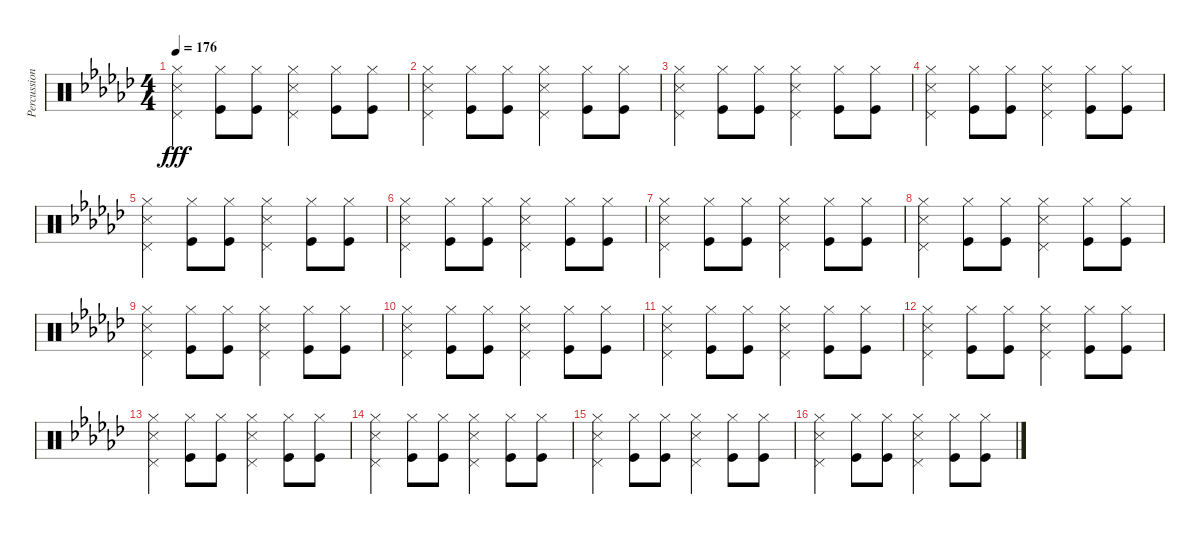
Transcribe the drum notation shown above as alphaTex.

\track ("Percussions" "Percussion") {instrument percussion}
\staff {score}
\articulation defaults
\ts (4 4)
\tempo 176
\clef neutral
\ks gb
("Snare (side stick) 3" "Pedal Hi-Hat (hit)" "Hi-Hat (closed)").4{dy fff} ("Kick (hit)" "Hi-Hat (closed)").8 ("Kick (hit)" "Hi-Hat (closed)").8 ("Snare (side stick) 3" "Pedal Hi-Hat (hit)" "Hi-Hat (closed)").4 ("Kick (hit)" "Hi-Hat (closed)").8 ("Kick (hit)" "Hi-Hat (closed)").8 |
("Snare (side stick) 3" "Pedal Hi-Hat (hit)" "Hi-Hat (closed)").4 ("Kick (hit)" "Hi-Hat (closed)").8 ("Kick (hit)" "Hi-Hat (closed)").8 ("Snare (side stick) 3" "Pedal Hi-Hat (hit)" "Hi-Hat (closed)").4 ("Kick (hit)" "Hi-Hat (closed)").8 ("Kick (hit)" "Hi-Hat (closed)").8 |
("Snare (side stick) 3" "Pedal Hi-Hat (hit)" "Hi-Hat (closed)").4 ("Kick (hit)" "Hi-Hat (closed)").8 ("Kick (hit)" "Hi-Hat (closed)").8 ("Snare (side stick) 3" "Pedal Hi-Hat (hit)" "Hi-Hat (closed)").4 ("Kick (hit)" "Hi-Hat (closed)").8 ("Kick (hit)" "Hi-Hat (closed)").8 |
("Snare (side stick) 3" "Pedal Hi-Hat (hit)" "Hi-Hat (closed)").4 ("Kick (hit)" "Hi-Hat (closed)").8 ("Kick (hit)" "Hi-Hat (closed)").8 ("Snare (side stick) 3" "Pedal Hi-Hat (hit)" "Hi-Hat (closed)").4 ("Kick (hit)" "Hi-Hat (closed)").8 ("Kick (hit)" "Hi-Hat (closed)").8 |
("Snare (side stick) 3" "Pedal Hi-Hat (hit)" "Hi-Hat (closed)").4 ("Kick (hit)" "Hi-Hat (closed)").8 ("Kick (hit)" "Hi-Hat (closed)").8 ("Snare (side stick) 3" "Pedal Hi-Hat (hit)" "Hi-Hat (closed)").4 ("Kick (hit)" "Hi-Hat (closed)").8 ("Kick (hit)" "Hi-Hat (closed)").8 |
("Snare (side stick) 3" "Pedal Hi-Hat (hit)" "Hi-Hat (closed)").4 ("Kick (hit)" "Hi-Hat (closed)").8 ("Kick (hit)" "Hi-Hat (closed)").8 ("Snare (side stick) 3" "Pedal Hi-Hat (hit)" "Hi-Hat (closed)").4 ("Kick (hit)" "Hi-Hat (closed)").8 ("Kick (hit)" "Hi-Hat (closed)").8 |
("Snare (side stick) 3" "Pedal Hi-Hat (hit)" "Hi-Hat (closed)").4 ("Kick (hit)" "Hi-Hat (closed)").8 ("Kick (hit)" "Hi-Hat (closed)").8 ("Snare (side stick) 3" "Pedal Hi-Hat (hit)" "Hi-Hat (closed)").4 ("Kick (hit)" "Hi-Hat (closed)").8 ("Kick (hit)" "Hi-Hat (closed)").8 |
("Snare (side stick) 3" "Pedal Hi-Hat (hit)" "Hi-Hat (closed)").4 ("Kick (hit)" "Hi-Hat (closed)").8 ("Kick (hit)" "Hi-Hat (closed)").8 ("Snare (side stick) 3" "Pedal Hi-Hat (hit)" "Hi-Hat (closed)").4 ("Kick (hit)" "Hi-Hat (closed)").8 ("Kick (hit)" "Hi-Hat (closed)").8 |
("Snare (side stick) 3" "Pedal Hi-Hat (hit)" "Hi-Hat (closed)").4 ("Kick (hit)" "Hi-Hat (closed)").8 ("Kick (hit)" "Hi-Hat (closed)").8 ("Snare (side stick) 3" "Pedal Hi-Hat (hit)" "Hi-Hat (closed)").4 ("Kick (hit)" "Hi-Hat (closed)").8 ("Kick (hit)" "Hi-Hat (closed)").8 |
("Snare (side stick) 3" "Pedal Hi-Hat (hit)" "Hi-Hat (closed)").4 ("Kick (hit)" "Hi-Hat (closed)").8 ("Kick (hit)" "Hi-Hat (closed)").8 ("Snare (side stick) 3" "Pedal Hi-Hat (hit)" "Hi-Hat (closed)").4 ("Kick (hit)" "Hi-Hat (closed)").8 ("Kick (hit)" "Hi-Hat (closed)").8 |
("Snare (side stick) 3" "Pedal Hi-Hat (hit)" "Hi-Hat (closed)").4 ("Kick (hit)" "Hi-Hat (closed)").8 ("Kick (hit)" "Hi-Hat (closed)").8 ("Snare (side stick) 3" "Pedal Hi-Hat (hit)" "Hi-Hat (closed)").4 ("Kick (hit)" "Hi-Hat (closed)").8 ("Kick (hit)" "Hi-Hat (closed)").8 |
("Snare (side stick) 3" "Pedal Hi-Hat (hit)" "Hi-Hat (closed)").4 ("Kick (hit)" "Hi-Hat (closed)").8 ("Kick (hit)" "Hi-Hat (closed)").8 ("Snare (side stick) 3" "Pedal Hi-Hat (hit)" "Hi-Hat (closed)").4 ("Kick (hit)" "Hi-Hat (closed)").8 ("Kick (hit)" "Hi-Hat (closed)").8 |
("Snare (side stick) 3" "Pedal Hi-Hat (hit)" "Hi-Hat (closed)").4 ("Kick (hit)" "Hi-Hat (closed)").8 ("Kick (hit)" "Hi-Hat (closed)").8 ("Snare (side stick) 3" "Pedal Hi-Hat (hit)" "Hi-Hat (closed)").4 ("Kick (hit)" "Hi-Hat (closed)").8 ("Kick (hit)" "Hi-Hat (closed)").8 |
("Snare (side stick) 3" "Pedal Hi-Hat (hit)" "Hi-Hat (closed)").4 ("Kick (hit)" "Hi-Hat (closed)").8 ("Kick (hit)" "Hi-Hat (closed)").8 ("Snare (side stick) 3" "Pedal Hi-Hat (hit)" "Hi-Hat (closed)").4 ("Kick (hit)" "Hi-Hat (closed)").8 ("Kick (hit)" "Hi-Hat (closed)").8 |
("Snare (side stick) 3" "Pedal Hi-Hat (hit)" "Hi-Hat (closed)").4 ("Kick (hit)" "Hi-Hat (closed)").8 ("Kick (hit)" "Hi-Hat (closed)").8 ("Snare (side stick) 3" "Pedal Hi-Hat (hit)" "Hi-Hat (closed)").4 ("Kick (hit)" "Hi-Hat (closed)").8 ("Kick (hit)" "Hi-Hat (closed)").8 |
("Snare (side stick) 3" "Pedal Hi-Hat (hit)" "Hi-Hat (closed)").4 ("Kick (hit)" "Hi-Hat (closed)").8 ("Kick (hit)" "Hi-Hat (closed)").8 ("Snare (side stick) 3" "Pedal Hi-Hat (hit)" "Hi-Hat (closed)").4 ("Kick (hit)" "Hi-Hat (closed)").8 ("Kick (hit)" "Hi-Hat (closed)").8
